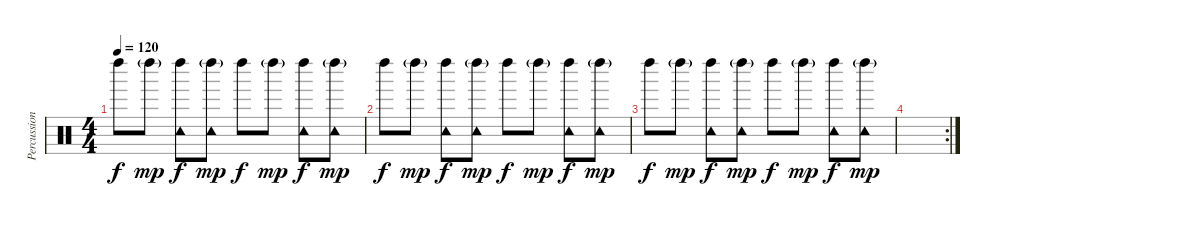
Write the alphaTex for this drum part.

\track ("Percussions" "Percussion") {instrument percussion}
\staff {score}
\articulation defaults
\ts (4 4)
\tempo 120
\clef neutral
\ks c "Left Maraca (hit)".8{dy f} "Left Maraca (hit)"{g}.8{dy mp}
("Left Maraca (hit)" "Tambourine (hit)").8{dy f} ("Left Maraca (hit)"{g} "Tambourine (hit)").8{dy mp} "Left Maraca (hit)".8{dy f} "Left Maraca (hit)"{g}.8{dy mp} ("Left Maraca (hit)" "Tambourine (hit)").8{dy f} ("Left Maraca (hit)"{g} "Tambourine (hit)").8{dy mp} |
"Left Maraca (hit)".8{dy f} "Left Maraca (hit)"{g}.8{dy mp} ("Left Maraca (hit)" "Tambourine (hit)").8{dy f} ("Left Maraca (hit)"{g} "Tambourine (hit)").8{dy mp} "Left Maraca (hit)".8{dy f} "Left Maraca (hit)"{g}.8{dy mp} ("Left Maraca (hit)" "Tambourine (hit)").8{dy f} ("Left Maraca (hit)"{g} "Tambourine (hit)").8{dy mp} |
"Left Maraca (hit)".8{dy f} "Left Maraca (hit)"{g}.8{dy mp} ("Left Maraca (hit)" "Tambourine (hit)").8{dy f} ("Left Maraca (hit)"{g} "Tambourine (hit)").8{dy mp} "Left Maraca (hit)".8{dy f} "Left Maraca (hit)"{g}.8{dy mp} ("Left Maraca (hit)" "Tambourine (hit)").8{dy f} ("Left Maraca (hit)"{g} "Tambourine (hit)").8{dy mp} |
\rc 2
